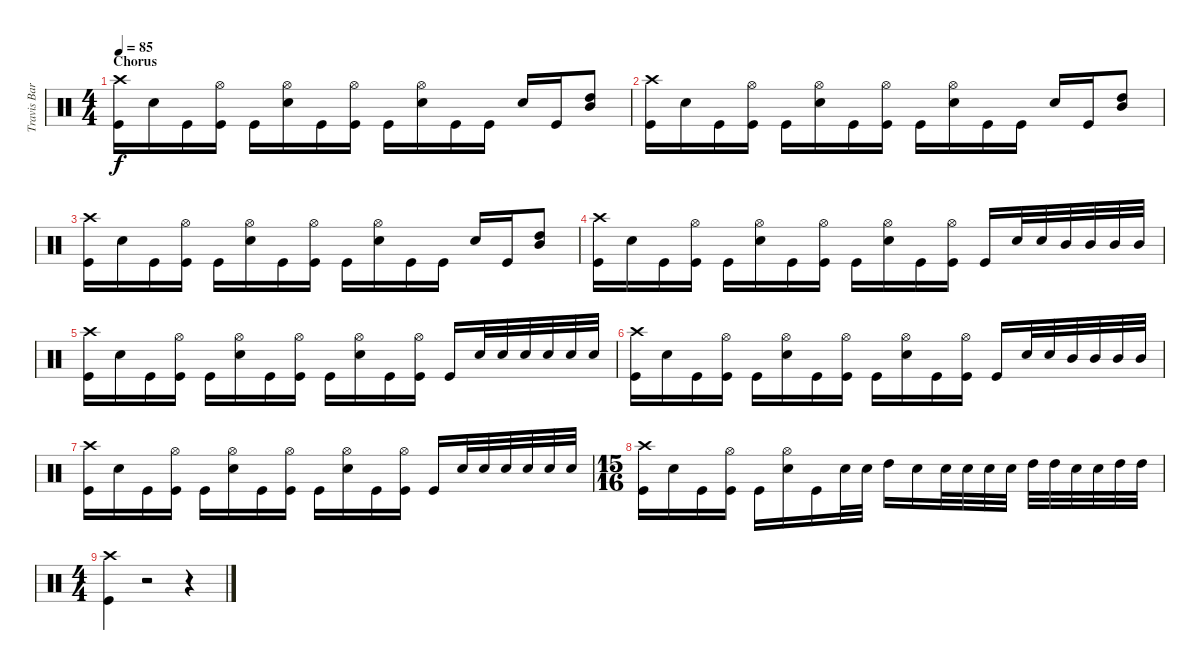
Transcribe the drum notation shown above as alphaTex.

\track ("Travis Barker" "Travis Bar") {instrument percussion}
\staff {score}
\articulation defaults
\ts (4 4)
\section ("" "Chorus")
\tempo 85
\clef neutral
\ks c
("Crash high (hit)" "Kick (hit)").16{dy f} "Electric Snare (hit)".16 "Kick (hit)".16 ("Hi-Hat (open)" "Kick (hit)").16 "Kick (hit)".16 ("Hi-Hat (open)" "Electric Snare (hit)").16 "Kick (hit)".16 ("Hi-Hat (open)" "Kick (hit)").16 "Kick (hit)".16 ("Hi-Hat (open)" "Electric Snare (hit)").16 "Kick (hit)".16 "Kick (hit)".16 "Electric Snare (hit)".16 "Kick (hit)".16 ("High Tom (hit)" "Mid Tom (hit)").8 |
("Crash high (hit)" "Kick (hit)").16 "Electric Snare (hit)".16 "Kick (hit)".16 ("Hi-Hat (open)" "Kick (hit)").16 "Kick (hit)".16 ("Hi-Hat (open)" "Electric Snare (hit)").16 "Kick (hit)".16 ("Hi-Hat (open)" "Kick (hit)").16 "Kick (hit)".16 ("Hi-Hat (open)" "Electric Snare (hit)").16 "Kick (hit)".16 "Kick (hit)".16 "Electric Snare (hit)".16 "Kick (hit)".16 ("High Tom (hit)" "Mid Tom (hit)").8 |
("Crash high (hit)" "Kick (hit)").16 "Electric Snare (hit)".16 "Kick (hit)".16 ("Hi-Hat (open)" "Kick (hit)").16 "Kick (hit)".16 ("Hi-Hat (open)" "Electric Snare (hit)").16 "Kick (hit)".16 ("Hi-Hat (open)" "Kick (hit)").16 "Kick (hit)".16 ("Hi-Hat (open)" "Electric Snare (hit)").16 "Kick (hit)".16 "Kick (hit)".16 "Electric Snare (hit)".16 "Kick (hit)".16 ("High Tom (hit)" "Mid Tom (hit)").8 |
("Crash high (hit)" "Kick (hit)").16 "Electric Snare (hit)".16 "Kick (hit)".16 ("Hi-Hat (open)" "Kick (hit)").16 "Kick (hit)".16 ("Hi-Hat (open)" "Electric Snare (hit)").16 "Kick (hit)".16 ("Hi-Hat (open)" "Kick (hit)").16 "Kick (hit)".16 ("Hi-Hat (open)" "Electric Snare (hit)").16 "Kick (hit)".16 ("Hi-Hat (open)" "Kick (hit)").16 "Kick (hit)".16 "Electric Snare (hit)".32 "Electric Snare (hit)".32 "Mid Tom (hit)".32 "Mid Tom (hit)".32 "Mid Tom (hit)".32 "Mid Tom (hit)".32 |
("Crash high (hit)" "Kick (hit)").16 "Electric Snare (hit)".16 "Kick (hit)".16 ("Hi-Hat (open)" "Kick (hit)").16 "Kick (hit)".16 ("Hi-Hat (open)" "Electric Snare (hit)").16 "Kick (hit)".16 ("Hi-Hat (open)" "Kick (hit)").16 "Kick (hit)".16 ("Hi-Hat (open)" "Electric Snare (hit)").16 "Kick (hit)".16 ("Hi-Hat (open)" "Kick (hit)").16 "Kick (hit)".16 "Electric Snare (hit)".32 "Electric Snare (hit)".32 "Electric Snare (hit)".32 "Electric Snare (hit)".32 "Electric Snare (hit)".32 "Electric Snare (hit)".32 |
("Crash high (hit)" "Kick (hit)").16 "Electric Snare (hit)".16 "Kick (hit)".16 ("Hi-Hat (open)" "Kick (hit)").16 "Kick (hit)".16 ("Hi-Hat (open)" "Electric Snare (hit)").16 "Kick (hit)".16 ("Hi-Hat (open)" "Kick (hit)").16 "Kick (hit)".16 ("Hi-Hat (open)" "Electric Snare (hit)").16 "Kick (hit)".16 ("Hi-Hat (open)" "Kick (hit)").16 "Kick (hit)".16 "Electric Snare (hit)".32 "Electric Snare (hit)".32 "Mid Tom (hit)".32 "Mid Tom (hit)".32 "Mid Tom (hit)".32 "Mid Tom (hit)".32 |
("Crash high (hit)" "Kick (hit)").16 "Electric Snare (hit)".16 "Kick (hit)".16 ("Hi-Hat (open)" "Kick (hit)").16 "Kick (hit)".16 ("Hi-Hat (open)" "Electric Snare (hit)").16 "Kick (hit)".16 ("Hi-Hat (open)" "Kick (hit)").16 "Kick (hit)".16 ("Hi-Hat (open)" "Electric Snare (hit)").16 "Kick (hit)".16 ("Hi-Hat (open)" "Kick (hit)").16 "Kick (hit)".16 "Electric Snare (hit)".32 "Electric Snare (hit)".32 "Electric Snare (hit)".32 "Electric Snare (hit)".32 "Electric Snare (hit)".32 "Electric Snare (hit)".32 |
\ts (15 16)
("Crash high (hit)" "Kick (hit)").16 "Electric Snare (hit)".16 "Kick (hit)".16 ("Hi-Hat (open)" "Kick (hit)").16 "Kick (hit)".16 ("Hi-Hat (open)" "Electric Snare (hit)").16 "Kick (hit)".16 "Electric Snare (hit)".32 "Electric Snare (hit)".32 "High Tom (hit)".16 "Electric Snare (hit)".16 "Electric Snare (hit)".32 "Electric Snare (hit)".32 "Electric Snare (hit)".32 "Electric Snare (hit)".32 "High Tom (hit)".32 "High Tom (hit)".32 "Electric Snare (hit)".32 "Electric Snare (hit)".32 "High Tom (hit)".32 "High Tom (hit)".32 |
\ts (4 4)
("Crash high (hit)" "Kick (hit)").4 r.2 r.4
